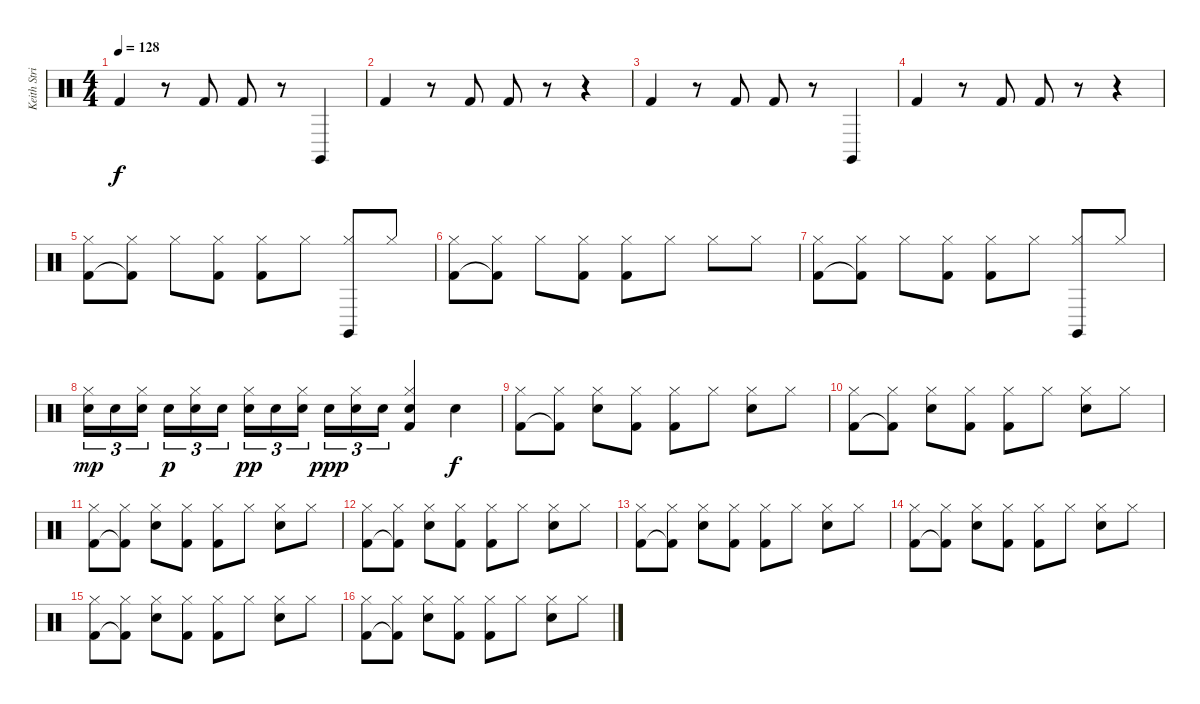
\track ("Keith Strickland (drums)" "Keith Stri") {instrument percussion}
\staff {score}
\articulation defaults
\ts (4 4)
\tempo 128
\clef neutral
\ks c "Kick (hit) 2".4{dy f}
r.8 "Kick (hit) 2".8 "Kick (hit) 2".8 r.8 "Claves (hit)".4 |
"Kick (hit) 2".4 r.8 "Kick (hit) 2".8 "Kick (hit) 2".8 r.8 r.4 |
"Kick (hit) 2".4 r.8 "Kick (hit) 2".8 "Kick (hit) 2".8 r.8 "Claves (hit)".4 |
"Kick (hit) 2".4 r.8 "Kick (hit) 2".8 "Kick (hit) 2".8 r.8 r.4 |
("Hi-Hat (closed)" "Kick (hit) 2").8 ("Hi-Hat (closed)" "Kick (hit) 2"{t}).8 "Hi-Hat (closed)".8 ("Hi-Hat (closed)" "Kick (hit) 2").8 ("Hi-Hat (closed)" "Kick (hit) 2").8 "Hi-Hat (closed)".8 ("Hi-Hat (closed)" "Claves (hit)").8 "Hi-Hat (closed)".8 |
("Hi-Hat (closed)" "Kick (hit) 2").8 ("Hi-Hat (closed)" "Kick (hit) 2"{t}).8 "Hi-Hat (closed)".8 ("Hi-Hat (closed)" "Kick (hit) 2").8 ("Hi-Hat (closed)" "Kick (hit) 2").8 "Hi-Hat (closed)".8 "Hi-Hat (closed)".8 "Hi-Hat (closed)".8 |
("Hi-Hat (closed)" "Kick (hit) 2").8 ("Hi-Hat (closed)" "Kick (hit) 2"{t}).8 "Hi-Hat (closed)".8 ("Hi-Hat (closed)" "Kick (hit) 2").8 ("Hi-Hat (closed)" "Kick (hit) 2").8 "Hi-Hat (closed)".8 ("Hi-Hat (closed)" "Claves (hit)").8 "Hi-Hat (closed)".8 |
("Hi-Hat (closed)" "Snare (hit) 2").16{tu (3 2) dy mp} "Snare (hit) 2".16{tu (3 2)} ("Hi-Hat (closed)" "Snare (hit) 2").16{tu (3 2)} "Snare (hit) 2".16{tu (3 2) dy p} ("Hi-Hat (closed)" "Snare (hit) 2").16{tu (3 2)} "Snare (hit) 2".16{tu (3 2)} ("Hi-Hat (closed)" "Snare (hit) 2").16{tu (3 2) dy pp} "Snare (hit) 2".16{tu (3 2)} ("Hi-Hat (closed)" "Snare (hit) 2").16{tu (3 2)} "Snare (hit) 2".16{tu (3 2) dy ppp} ("Hi-Hat (closed)" "Snare (hit) 2").16{tu (3 2)} "Snare (hit) 2".16{tu (3 2)} ("Hi-Hat (closed)" "Snare (hit) 2" "Kick (hit) 2").4 "Snare (hit) 2".4{dy f} |
("Hi-Hat (closed)" "Kick (hit) 2").8 ("Hi-Hat (closed)" "Kick (hit) 2"{t}).8 ("Hi-Hat (closed)" "Snare (hit) 2").8 ("Hi-Hat (closed)" "Kick (hit) 2").8 ("Hi-Hat (closed)" "Kick (hit) 2").8 "Hi-Hat (closed)".8 ("Hi-Hat (closed)" "Snare (hit) 2").8 "Hi-Hat (closed)".8 |
("Hi-Hat (closed)" "Kick (hit) 2").8 ("Hi-Hat (closed)" "Kick (hit) 2"{t}).8 ("Hi-Hat (closed)" "Snare (hit) 2").8 ("Hi-Hat (closed)" "Kick (hit) 2").8 ("Hi-Hat (closed)" "Kick (hit) 2").8 "Hi-Hat (closed)".8 ("Hi-Hat (closed)" "Snare (hit) 2").8 "Hi-Hat (closed)".8 |
("Hi-Hat (closed)" "Kick (hit) 2").8 ("Hi-Hat (closed)" "Kick (hit) 2"{t}).8 ("Hi-Hat (closed)" "Snare (hit) 2").8 ("Hi-Hat (closed)" "Kick (hit) 2").8 ("Hi-Hat (closed)" "Kick (hit) 2").8 "Hi-Hat (closed)".8 ("Hi-Hat (closed)" "Snare (hit) 2").8 "Hi-Hat (closed)".8 |
("Hi-Hat (closed)" "Kick (hit) 2").8 ("Hi-Hat (closed)" "Kick (hit) 2"{t}).8 ("Hi-Hat (closed)" "Snare (hit) 2").8 ("Hi-Hat (closed)" "Kick (hit) 2").8 ("Hi-Hat (closed)" "Kick (hit) 2").8 "Hi-Hat (closed)".8 ("Hi-Hat (closed)" "Snare (hit) 2").8 "Hi-Hat (closed)".8 |
("Hi-Hat (closed)" "Kick (hit) 2").8 ("Hi-Hat (closed)" "Kick (hit) 2"{t}).8 ("Hi-Hat (closed)" "Snare (hit) 2").8 ("Hi-Hat (closed)" "Kick (hit) 2").8 ("Hi-Hat (closed)" "Kick (hit) 2").8 "Hi-Hat (closed)".8 ("Hi-Hat (closed)" "Snare (hit) 2").8 "Hi-Hat (closed)".8 |
("Hi-Hat (closed)" "Kick (hit) 2").8 ("Hi-Hat (closed)" "Kick (hit) 2"{t}).8 ("Hi-Hat (closed)" "Snare (hit) 2").8 ("Hi-Hat (closed)" "Kick (hit) 2").8 ("Hi-Hat (closed)" "Kick (hit) 2").8 "Hi-Hat (closed)".8 ("Hi-Hat (closed)" "Snare (hit) 2").8 "Hi-Hat (closed)".8 |
("Hi-Hat (closed)" "Kick (hit) 2").8 ("Hi-Hat (closed)" "Kick (hit) 2"{t}).8 ("Hi-Hat (closed)" "Snare (hit) 2").8 ("Hi-Hat (closed)" "Kick (hit) 2").8 ("Hi-Hat (closed)" "Kick (hit) 2").8 "Hi-Hat (closed)".8 ("Hi-Hat (closed)" "Snare (hit) 2").8 "Hi-Hat (closed)".8 |
("Hi-Hat (closed)" "Kick (hit) 2").8 ("Hi-Hat (closed)" "Kick (hit) 2"{t}).8 ("Hi-Hat (closed)" "Snare (hit) 2").8 ("Hi-Hat (closed)" "Kick (hit) 2").8 ("Hi-Hat (closed)" "Kick (hit) 2").8 "Hi-Hat (closed)".8 ("Hi-Hat (closed)" "Snare (hit) 2").8 "Hi-Hat (closed)".8
